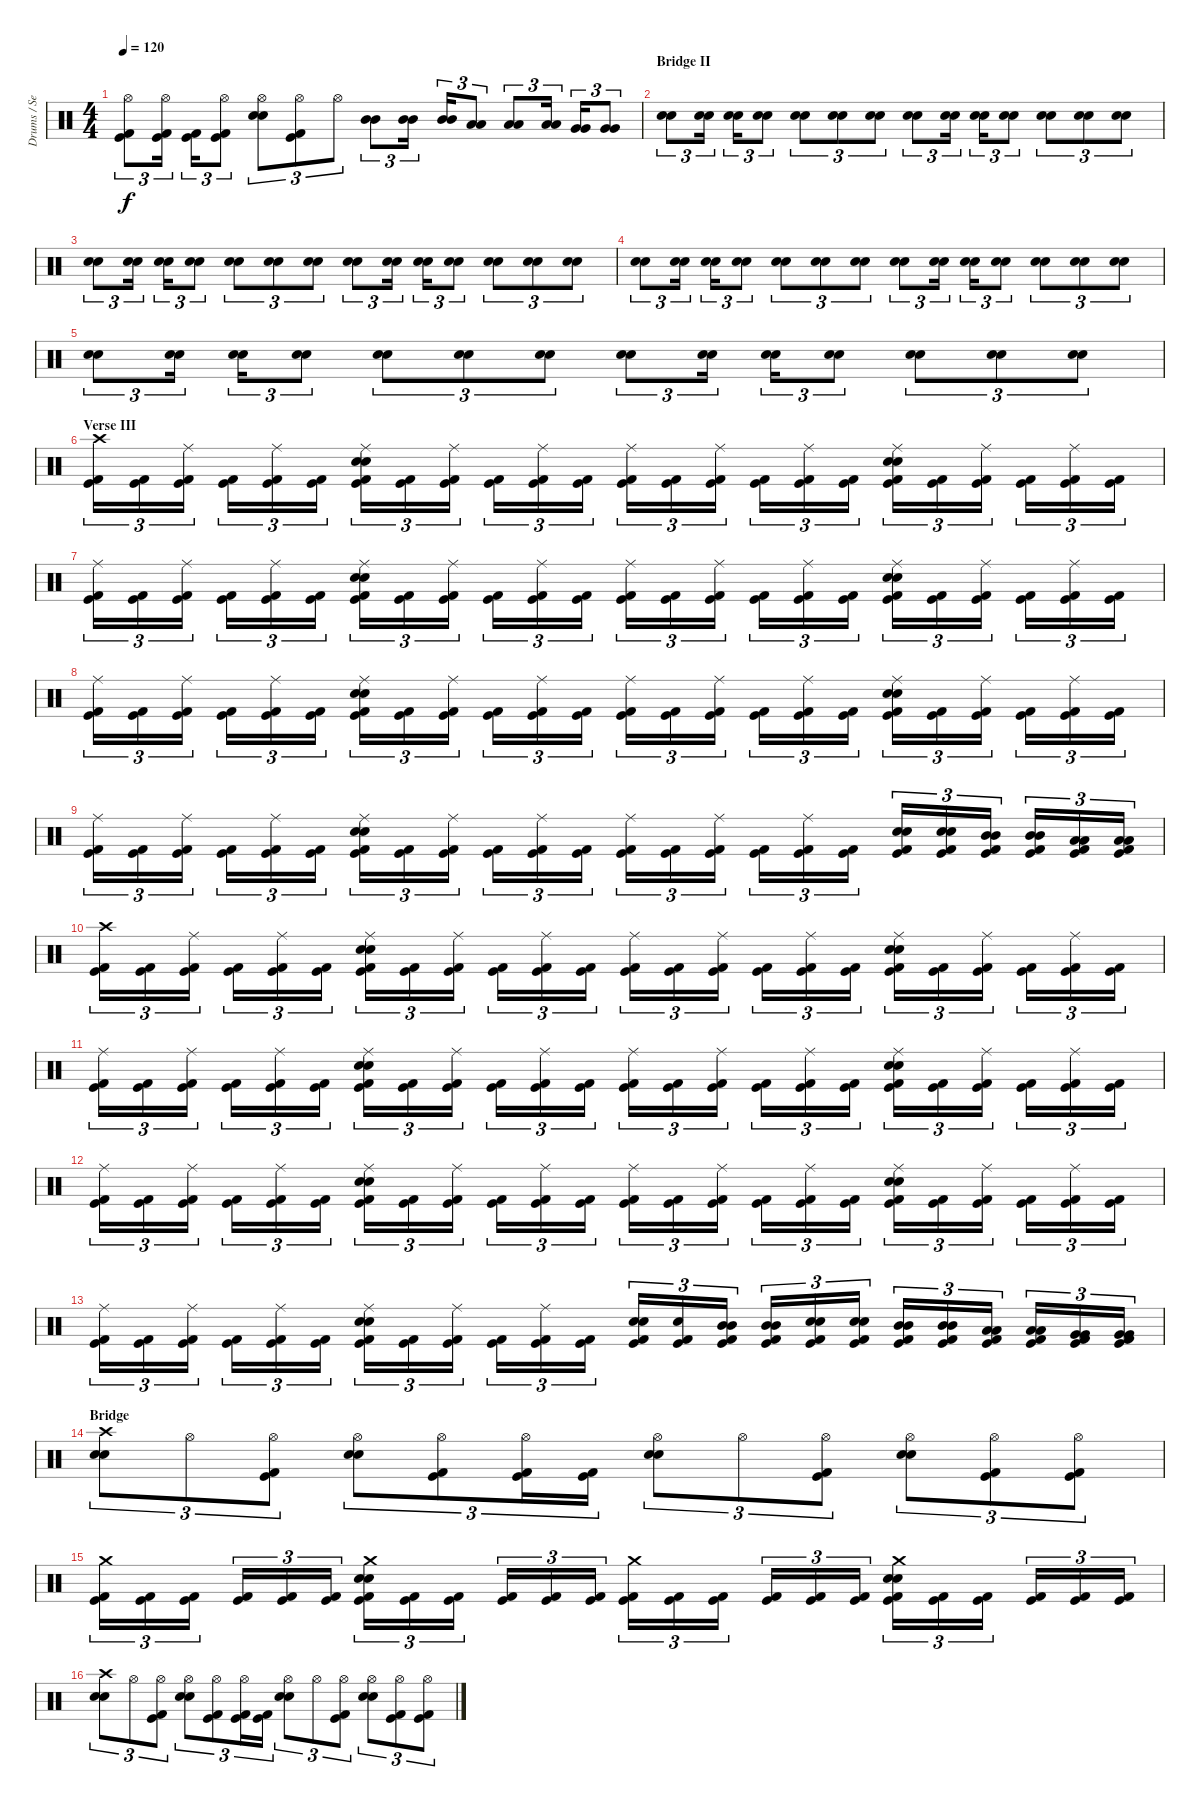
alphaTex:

\track ("Drums / Sean" "Drums / Se") {instrument percussion}
\staff {score}
\articulation defaults
\ts (4 4)
\tempo 120
\clef neutral
\ks c
("Hi-Hat (open)" "Kick (hit)" "Kick (hit) 2").8{tu (3 2) dy f} ("Hi-Hat (open)" "Kick (hit)" "Kick (hit) 2").16{tu (3 2)} ("Kick (hit)" "Kick (hit) 2").16{tu (3 2)} ("Hi-Hat (open)" "Kick (hit)" "Kick (hit) 2").8{tu (3 2)} ("Hi-Hat (open)" "Electric Snare (hit)" "Snare (hit) 2").8{tu (3 2)} ("Hi-Hat (open)" "Kick (hit)" "Kick (hit) 2").8{tu (3 2)} "Hi-Hat (open)".8{tu (3 2)} ("Mid Tom (hit)" "Mid Tom (hit)").8{tu (3 2)} ("Mid Tom (hit)" "Mid Tom (hit)").16{tu (3 2)} ("Mid Tom (hit)" "Mid Tom (hit)").16{tu (3 2)} ("Low Tom (hit)" "Low Tom (hit)").8{tu (3 2)} ("Low Tom (hit)" "Low Tom (hit)").8{tu (3 2)} ("Low Tom (hit)" "Low Tom (hit)").16{tu (3 2)} ("Very Low Tom (hit)" "Very Low Tom (hit)").16{tu (3 2)} ("Very Low Tom (hit)" "Very Low Tom (hit)").8{tu (3 2)} |
\section ("" "Bridge II")
("Electric Snare (hit)" "Snare (hit) 2").8{tu (3 2)} ("Electric Snare (hit)" "Snare (hit) 2").16{tu (3 2)} ("Electric Snare (hit)" "Snare (hit) 2").16{tu (3 2)} ("Electric Snare (hit)" "Snare (hit) 2").8{tu (3 2)} ("Electric Snare (hit)" "Snare (hit) 2").8{tu (3 2)} ("Electric Snare (hit)" "Snare (hit) 2").8{tu (3 2)} ("Electric Snare (hit)" "Snare (hit) 2").8{tu (3 2)} ("Electric Snare (hit)" "Snare (hit) 2").8{tu (3 2)} ("Electric Snare (hit)" "Snare (hit) 2").16{tu (3 2)} ("Electric Snare (hit)" "Snare (hit) 2").16{tu (3 2)} ("Electric Snare (hit)" "Snare (hit) 2").8{tu (3 2)} ("Electric Snare (hit)" "Snare (hit) 2").8{tu (3 2)} ("Electric Snare (hit)" "Snare (hit) 2").8{tu (3 2)} ("Electric Snare (hit)" "Snare (hit) 2").8{tu (3 2)} |
("Electric Snare (hit)" "Snare (hit) 2").8{tu (3 2)} ("Electric Snare (hit)" "Snare (hit) 2").16{tu (3 2)} ("Electric Snare (hit)" "Snare (hit) 2").16{tu (3 2)} ("Electric Snare (hit)" "Snare (hit) 2").8{tu (3 2)} ("Electric Snare (hit)" "Snare (hit) 2").8{tu (3 2)} ("Electric Snare (hit)" "Snare (hit) 2").8{tu (3 2)} ("Electric Snare (hit)" "Snare (hit) 2").8{tu (3 2)} ("Electric Snare (hit)" "Snare (hit) 2").8{tu (3 2)} ("Electric Snare (hit)" "Snare (hit) 2").16{tu (3 2)} ("Electric Snare (hit)" "Snare (hit) 2").16{tu (3 2)} ("Electric Snare (hit)" "Snare (hit) 2").8{tu (3 2)} ("Electric Snare (hit)" "Snare (hit) 2").8{tu (3 2)} ("Electric Snare (hit)" "Snare (hit) 2").8{tu (3 2)} ("Electric Snare (hit)" "Snare (hit) 2").8{tu (3 2)} |
("Electric Snare (hit)" "Snare (hit) 2").8{tu (3 2)} ("Electric Snare (hit)" "Snare (hit) 2").16{tu (3 2)} ("Electric Snare (hit)" "Snare (hit) 2").16{tu (3 2)} ("Electric Snare (hit)" "Snare (hit) 2").8{tu (3 2)} ("Electric Snare (hit)" "Snare (hit) 2").8{tu (3 2)} ("Electric Snare (hit)" "Snare (hit) 2").8{tu (3 2)} ("Electric Snare (hit)" "Snare (hit) 2").8{tu (3 2)} ("Electric Snare (hit)" "Snare (hit) 2").8{tu (3 2)} ("Electric Snare (hit)" "Snare (hit) 2").16{tu (3 2)} ("Electric Snare (hit)" "Snare (hit) 2").16{tu (3 2)} ("Electric Snare (hit)" "Snare (hit) 2").8{tu (3 2)} ("Electric Snare (hit)" "Snare (hit) 2").8{tu (3 2)} ("Electric Snare (hit)" "Snare (hit) 2").8{tu (3 2)} ("Electric Snare (hit)" "Snare (hit) 2").8{tu (3 2)} |
("Electric Snare (hit)" "Snare (hit) 2").8{tu (3 2)} ("Electric Snare (hit)" "Snare (hit) 2").16{tu (3 2)} ("Electric Snare (hit)" "Snare (hit) 2").16{tu (3 2)} ("Electric Snare (hit)" "Snare (hit) 2").8{tu (3 2)} ("Electric Snare (hit)" "Snare (hit) 2").8{tu (3 2)} ("Electric Snare (hit)" "Snare (hit) 2").8{tu (3 2)} ("Electric Snare (hit)" "Snare (hit) 2").8{tu (3 2)} ("Electric Snare (hit)" "Snare (hit) 2").8{tu (3 2)} ("Electric Snare (hit)" "Snare (hit) 2").16{tu (3 2)} ("Electric Snare (hit)" "Snare (hit) 2").16{tu (3 2)} ("Electric Snare (hit)" "Snare (hit) 2").8{tu (3 2)} ("Electric Snare (hit)" "Snare (hit) 2").8{tu (3 2)} ("Electric Snare (hit)" "Snare (hit) 2").8{tu (3 2)} ("Electric Snare (hit)" "Snare (hit) 2").8{tu (3 2)} |
\section ("" "Verse III")
("Crash high (hit)" "Kick (hit)" "Kick (hit) 2").16{tu (3 2)} ("Kick (hit)" "Kick (hit) 2").16{tu (3 2)} ("Ride (middle)" "Kick (hit)" "Kick (hit) 2").16{tu (3 2)} ("Kick (hit)" "Kick (hit) 2").16{tu (3 2)} ("Ride (middle)" "Kick (hit)" "Kick (hit) 2").16{tu (3 2)} ("Kick (hit)" "Kick (hit) 2").16{tu (3 2)} ("Ride (middle)" "Electric Snare (hit)" "Snare (hit) 2" "Kick (hit)" "Kick (hit) 2").16{tu (3 2)} ("Kick (hit)" "Kick (hit) 2").16{tu (3 2)} ("Ride (middle)" "Kick (hit)" "Kick (hit) 2").16{tu (3 2)} ("Kick (hit)" "Kick (hit) 2").16{tu (3 2)} ("Ride (middle)" "Kick (hit)" "Kick (hit) 2").16{tu (3 2)} ("Kick (hit)" "Kick (hit) 2").16{tu (3 2)} ("Ride (middle)" "Kick (hit)" "Kick (hit) 2").16{tu (3 2)} ("Kick (hit)" "Kick (hit) 2").16{tu (3 2)} ("Ride (middle)" "Kick (hit)" "Kick (hit) 2").16{tu (3 2)} ("Kick (hit)" "Kick (hit) 2").16{tu (3 2)} ("Ride (middle)" "Kick (hit)" "Kick (hit) 2").16{tu (3 2)} ("Kick (hit)" "Kick (hit) 2").16{tu (3 2)} ("Ride (middle)" "Electric Snare (hit)" "Snare (hit) 2" "Kick (hit)" "Kick (hit) 2").16{tu (3 2)} ("Kick (hit)" "Kick (hit) 2").16{tu (3 2)} ("Ride (middle)" "Kick (hit)" "Kick (hit) 2").16{tu (3 2)} ("Kick (hit)" "Kick (hit) 2").16{tu (3 2)} ("Ride (middle)" "Kick (hit)" "Kick (hit) 2").16{tu (3 2)} ("Kick (hit)" "Kick (hit) 2").16{tu (3 2)} |
("Ride (middle)" "Kick (hit)" "Kick (hit) 2").16{tu (3 2)} ("Kick (hit)" "Kick (hit) 2").16{tu (3 2)} ("Ride (middle)" "Kick (hit)" "Kick (hit) 2").16{tu (3 2)} ("Kick (hit)" "Kick (hit) 2").16{tu (3 2)} ("Ride (middle)" "Kick (hit)" "Kick (hit) 2").16{tu (3 2)} ("Kick (hit)" "Kick (hit) 2").16{tu (3 2)} ("Ride (middle)" "Electric Snare (hit)" "Snare (hit) 2" "Kick (hit)" "Kick (hit) 2").16{tu (3 2)} ("Kick (hit)" "Kick (hit) 2").16{tu (3 2)} ("Ride (middle)" "Kick (hit)" "Kick (hit) 2").16{tu (3 2)} ("Kick (hit)" "Kick (hit) 2").16{tu (3 2)} ("Ride (middle)" "Kick (hit)" "Kick (hit) 2").16{tu (3 2)} ("Kick (hit)" "Kick (hit) 2").16{tu (3 2)} ("Ride (middle)" "Kick (hit)" "Kick (hit) 2").16{tu (3 2)} ("Kick (hit)" "Kick (hit) 2").16{tu (3 2)} ("Ride (middle)" "Kick (hit)" "Kick (hit) 2").16{tu (3 2)} ("Kick (hit)" "Kick (hit) 2").16{tu (3 2)} ("Ride (middle)" "Kick (hit)" "Kick (hit) 2").16{tu (3 2)} ("Kick (hit)" "Kick (hit) 2").16{tu (3 2)} ("Ride (middle)" "Electric Snare (hit)" "Snare (hit) 2" "Kick (hit)" "Kick (hit) 2").16{tu (3 2)} ("Kick (hit)" "Kick (hit) 2").16{tu (3 2)} ("Ride (middle)" "Kick (hit)" "Kick (hit) 2").16{tu (3 2)} ("Kick (hit)" "Kick (hit) 2").16{tu (3 2)} ("Ride (middle)" "Kick (hit)" "Kick (hit) 2").16{tu (3 2)} ("Kick (hit)" "Kick (hit) 2").16{tu (3 2)} |
("Ride (middle)" "Kick (hit)" "Kick (hit) 2").16{tu (3 2)} ("Kick (hit)" "Kick (hit) 2").16{tu (3 2)} ("Ride (middle)" "Kick (hit)" "Kick (hit) 2").16{tu (3 2)} ("Kick (hit)" "Kick (hit) 2").16{tu (3 2)} ("Ride (middle)" "Kick (hit)" "Kick (hit) 2").16{tu (3 2)} ("Kick (hit)" "Kick (hit) 2").16{tu (3 2)} ("Ride (middle)" "Electric Snare (hit)" "Snare (hit) 2" "Kick (hit)" "Kick (hit) 2").16{tu (3 2)} ("Kick (hit)" "Kick (hit) 2").16{tu (3 2)} ("Ride (middle)" "Kick (hit)" "Kick (hit) 2").16{tu (3 2)} ("Kick (hit)" "Kick (hit) 2").16{tu (3 2)} ("Ride (middle)" "Kick (hit)" "Kick (hit) 2").16{tu (3 2)} ("Kick (hit)" "Kick (hit) 2").16{tu (3 2)} ("Ride (middle)" "Kick (hit)" "Kick (hit) 2").16{tu (3 2)} ("Kick (hit)" "Kick (hit) 2").16{tu (3 2)} ("Ride (middle)" "Kick (hit)" "Kick (hit) 2").16{tu (3 2)} ("Kick (hit)" "Kick (hit) 2").16{tu (3 2)} ("Ride (middle)" "Kick (hit)" "Kick (hit) 2").16{tu (3 2)} ("Kick (hit)" "Kick (hit) 2").16{tu (3 2)} ("Ride (middle)" "Electric Snare (hit)" "Snare (hit) 2" "Kick (hit)" "Kick (hit) 2").16{tu (3 2)} ("Kick (hit)" "Kick (hit) 2").16{tu (3 2)} ("Ride (middle)" "Kick (hit)" "Kick (hit) 2").16{tu (3 2)} ("Kick (hit)" "Kick (hit) 2").16{tu (3 2)} ("Ride (middle)" "Kick (hit)" "Kick (hit) 2").16{tu (3 2)} ("Kick (hit)" "Kick (hit) 2").16{tu (3 2)} |
("Ride (middle)" "Kick (hit)" "Kick (hit) 2").16{tu (3 2)} ("Kick (hit)" "Kick (hit) 2").16{tu (3 2)} ("Ride (middle)" "Kick (hit)" "Kick (hit) 2").16{tu (3 2)} ("Kick (hit)" "Kick (hit) 2").16{tu (3 2)} ("Ride (middle)" "Kick (hit)" "Kick (hit) 2").16{tu (3 2)} ("Kick (hit)" "Kick (hit) 2").16{tu (3 2)} ("Ride (middle)" "Electric Snare (hit)" "Snare (hit) 2" "Kick (hit)" "Kick (hit) 2").16{tu (3 2)} ("Kick (hit)" "Kick (hit) 2").16{tu (3 2)} ("Ride (middle)" "Kick (hit)" "Kick (hit) 2").16{tu (3 2)} ("Kick (hit)" "Kick (hit) 2").16{tu (3 2)} ("Ride (middle)" "Kick (hit)" "Kick (hit) 2").16{tu (3 2)} ("Kick (hit)" "Kick (hit) 2").16{tu (3 2)} ("Ride (middle)" "Kick (hit)" "Kick (hit) 2").16{tu (3 2)} ("Kick (hit)" "Kick (hit) 2").16{tu (3 2)} ("Ride (middle)" "Kick (hit)" "Kick (hit) 2").16{tu (3 2)} ("Kick (hit)" "Kick (hit) 2").16{tu (3 2)} ("Ride (middle)" "Kick (hit)" "Kick (hit) 2").16{tu (3 2)} ("Kick (hit)" "Kick (hit) 2").16{tu (3 2)} ("Electric Snare (hit)" "Snare (hit) 2" "Kick (hit)" "Kick (hit) 2").16{tu (3 2)} ("Electric Snare (hit)" "Snare (hit) 2" "Kick (hit)" "Kick (hit) 2").16{tu (3 2)} ("Mid Tom (hit)" "Mid Tom (hit)" "Kick (hit)" "Kick (hit) 2").16{tu (3 2)} ("Mid Tom (hit)" "Mid Tom (hit)" "Kick (hit)" "Kick (hit) 2").16{tu (3 2)} ("Low Tom (hit)" "Low Tom (hit)" "Kick (hit)" "Kick (hit) 2").16{tu (3 2)} ("Low Tom (hit)" "Low Tom (hit)" "Kick (hit)" "Kick (hit) 2").16{tu (3 2)} |
("Crash high (hit)" "Kick (hit)" "Kick (hit) 2").16{tu (3 2)} ("Kick (hit)" "Kick (hit) 2").16{tu (3 2)} ("Ride (middle)" "Kick (hit)" "Kick (hit) 2").16{tu (3 2)} ("Kick (hit)" "Kick (hit) 2").16{tu (3 2)} ("Ride (middle)" "Kick (hit)" "Kick (hit) 2").16{tu (3 2)} ("Kick (hit)" "Kick (hit) 2").16{tu (3 2)} ("Ride (middle)" "Electric Snare (hit)" "Snare (hit) 2" "Kick (hit)" "Kick (hit) 2").16{tu (3 2)} ("Kick (hit)" "Kick (hit) 2").16{tu (3 2)} ("Ride (middle)" "Kick (hit)" "Kick (hit) 2").16{tu (3 2)} ("Kick (hit)" "Kick (hit) 2").16{tu (3 2)} ("Ride (middle)" "Kick (hit)" "Kick (hit) 2").16{tu (3 2)} ("Kick (hit)" "Kick (hit) 2").16{tu (3 2)} ("Ride (middle)" "Kick (hit)" "Kick (hit) 2").16{tu (3 2)} ("Kick (hit)" "Kick (hit) 2").16{tu (3 2)} ("Ride (middle)" "Kick (hit)" "Kick (hit) 2").16{tu (3 2)} ("Kick (hit)" "Kick (hit) 2").16{tu (3 2)} ("Ride (middle)" "Kick (hit)" "Kick (hit) 2").16{tu (3 2)} ("Kick (hit)" "Kick (hit) 2").16{tu (3 2)} ("Ride (middle)" "Electric Snare (hit)" "Snare (hit) 2" "Kick (hit)" "Kick (hit) 2").16{tu (3 2)} ("Kick (hit)" "Kick (hit) 2").16{tu (3 2)} ("Ride (middle)" "Kick (hit)" "Kick (hit) 2").16{tu (3 2)} ("Kick (hit)" "Kick (hit) 2").16{tu (3 2)} ("Ride (middle)" "Kick (hit)" "Kick (hit) 2").16{tu (3 2)} ("Kick (hit)" "Kick (hit) 2").16{tu (3 2)} |
("Ride (middle)" "Kick (hit)" "Kick (hit) 2").16{tu (3 2)} ("Kick (hit)" "Kick (hit) 2").16{tu (3 2)} ("Ride (middle)" "Kick (hit)" "Kick (hit) 2").16{tu (3 2)} ("Kick (hit)" "Kick (hit) 2").16{tu (3 2)} ("Ride (middle)" "Kick (hit)" "Kick (hit) 2").16{tu (3 2)} ("Kick (hit)" "Kick (hit) 2").16{tu (3 2)} ("Ride (middle)" "Electric Snare (hit)" "Snare (hit) 2" "Kick (hit)" "Kick (hit) 2").16{tu (3 2)} ("Kick (hit)" "Kick (hit) 2").16{tu (3 2)} ("Ride (middle)" "Kick (hit)" "Kick (hit) 2").16{tu (3 2)} ("Kick (hit)" "Kick (hit) 2").16{tu (3 2)} ("Ride (middle)" "Kick (hit)" "Kick (hit) 2").16{tu (3 2)} ("Kick (hit)" "Kick (hit) 2").16{tu (3 2)} ("Ride (middle)" "Kick (hit)" "Kick (hit) 2").16{tu (3 2)} ("Kick (hit)" "Kick (hit) 2").16{tu (3 2)} ("Ride (middle)" "Kick (hit)" "Kick (hit) 2").16{tu (3 2)} ("Kick (hit)" "Kick (hit) 2").16{tu (3 2)} ("Ride (middle)" "Kick (hit)" "Kick (hit) 2").16{tu (3 2)} ("Kick (hit)" "Kick (hit) 2").16{tu (3 2)} ("Ride (middle)" "Electric Snare (hit)" "Snare (hit) 2" "Kick (hit)" "Kick (hit) 2").16{tu (3 2)} ("Kick (hit)" "Kick (hit) 2").16{tu (3 2)} ("Ride (middle)" "Kick (hit)" "Kick (hit) 2").16{tu (3 2)} ("Kick (hit)" "Kick (hit) 2").16{tu (3 2)} ("Ride (middle)" "Kick (hit)" "Kick (hit) 2").16{tu (3 2)} ("Kick (hit)" "Kick (hit) 2").16{tu (3 2)} |
("Ride (middle)" "Kick (hit)" "Kick (hit) 2").16{tu (3 2)} ("Kick (hit)" "Kick (hit) 2").16{tu (3 2)} ("Ride (middle)" "Kick (hit)" "Kick (hit) 2").16{tu (3 2)} ("Kick (hit)" "Kick (hit) 2").16{tu (3 2)} ("Ride (middle)" "Kick (hit)" "Kick (hit) 2").16{tu (3 2)} ("Kick (hit)" "Kick (hit) 2").16{tu (3 2)} ("Ride (middle)" "Electric Snare (hit)" "Snare (hit) 2" "Kick (hit)" "Kick (hit) 2").16{tu (3 2)} ("Kick (hit)" "Kick (hit) 2").16{tu (3 2)} ("Ride (middle)" "Kick (hit)" "Kick (hit) 2").16{tu (3 2)} ("Kick (hit)" "Kick (hit) 2").16{tu (3 2)} ("Ride (middle)" "Kick (hit)" "Kick (hit) 2").16{tu (3 2)} ("Kick (hit)" "Kick (hit) 2").16{tu (3 2)} ("Ride (middle)" "Kick (hit)" "Kick (hit) 2").16{tu (3 2)} ("Kick (hit)" "Kick (hit) 2").16{tu (3 2)} ("Ride (middle)" "Kick (hit)" "Kick (hit) 2").16{tu (3 2)} ("Kick (hit)" "Kick (hit) 2").16{tu (3 2)} ("Ride (middle)" "Kick (hit)" "Kick (hit) 2").16{tu (3 2)} ("Kick (hit)" "Kick (hit) 2").16{tu (3 2)} ("Ride (middle)" "Electric Snare (hit)" "Snare (hit) 2" "Kick (hit)" "Kick (hit) 2").16{tu (3 2)} ("Kick (hit)" "Kick (hit) 2").16{tu (3 2)} ("Ride (middle)" "Kick (hit)" "Kick (hit) 2").16{tu (3 2)} ("Kick (hit)" "Kick (hit) 2").16{tu (3 2)} ("Ride (middle)" "Kick (hit)" "Kick (hit) 2").16{tu (3 2)} ("Kick (hit)" "Kick (hit) 2").16{tu (3 2)} |
("Ride (middle)" "Kick (hit)" "Kick (hit) 2").16{tu (3 2)} ("Kick (hit)" "Kick (hit) 2").16{tu (3 2)} ("Ride (middle)" "Kick (hit)" "Kick (hit) 2").16{tu (3 2)} ("Kick (hit)" "Kick (hit) 2").16{tu (3 2)} ("Ride (middle)" "Kick (hit)" "Kick (hit) 2").16{tu (3 2)} ("Kick (hit)" "Kick (hit) 2").16{tu (3 2)} ("Ride (middle)" "Electric Snare (hit)" "Snare (hit) 2" "Kick (hit)" "Kick (hit) 2").16{tu (3 2)} ("Kick (hit)" "Kick (hit) 2").16{tu (3 2)} ("Ride (middle)" "Kick (hit)" "Kick (hit) 2").16{tu (3 2)} ("Kick (hit)" "Kick (hit) 2").16{tu (3 2)} ("Ride (middle)" "Kick (hit)" "Kick (hit) 2").16{tu (3 2)} ("Kick (hit)" "Kick (hit) 2").16{tu (3 2)} ("Electric Snare (hit)" "Snare (hit) 2" "Kick (hit)" "Kick (hit) 2").16{tu (3 2)} ("Electric Snare (hit)" "Kick (hit)" "Kick (hit) 2").16{tu (3 2)} ("Mid Tom (hit)" "Mid Tom (hit)" "Kick (hit)" "Kick (hit) 2").16{tu (3 2)} ("Mid Tom (hit)" "Mid Tom (hit)" "Kick (hit)" "Kick (hit) 2").16{tu (3 2)} ("Electric Snare (hit)" "Snare (hit) 2" "Kick (hit)" "Kick (hit) 2").16{tu (3 2)} ("Electric Snare (hit)" "Snare (hit) 2" "Kick (hit)" "Kick (hit) 2").16{tu (3 2)} ("Mid Tom (hit)" "Mid Tom (hit)" "Kick (hit)" "Kick (hit) 2").16{tu (3 2)} ("Mid Tom (hit)" "Mid Tom (hit)" "Kick (hit)" "Kick (hit) 2").16{tu (3 2)} ("Low Tom (hit)" "Low Tom (hit)" "Kick (hit)" "Kick (hit) 2").16{tu (3 2)} ("Low Tom (hit)" "Low Tom (hit)" "Kick (hit)" "Kick (hit) 2").16{tu (3 2)} ("Very Low Tom (hit)" "Very Low Tom (hit)" "Kick (hit)" "Kick (hit) 2").16{tu (3 2)} ("Very Low Tom (hit)" "Very Low Tom (hit)" "Kick (hit)" "Kick (hit) 2").16{tu (3 2)} |
\section ("" "Bridge")
("Crash high (hit)" "Electric Snare (hit)" "Snare (hit) 2").8{tu (3 2)} "Hi-Hat (open)".8{tu (3 2)} ("Hi-Hat (open)" "Kick (hit)" "Kick (hit) 2").8{tu (3 2)} ("Hi-Hat (open)" "Electric Snare (hit)" "Snare (hit) 2").8{tu (3 2)} ("Hi-Hat (open)" "Kick (hit)" "Kick (hit) 2").8{tu (3 2)} ("Hi-Hat (open)" "Kick (hit)" "Kick (hit) 2").16{tu (3 2)} ("Kick (hit)" "Kick (hit) 2").16{tu (3 2)} ("Hi-Hat (open)" "Electric Snare (hit)" "Snare (hit) 2").8{tu (3 2)} "Hi-Hat (open)".8{tu (3 2)} ("Hi-Hat (open)" "Kick (hit)" "Kick (hit) 2").8{tu (3 2)} ("Hi-Hat (open)" "Electric Snare (hit)" "Snare (hit) 2").8{tu (3 2)} ("Hi-Hat (open)" "Kick (hit)" "Kick (hit) 2").8{tu (3 2)} ("Hi-Hat (open)" "Kick (hit)" "Kick (hit) 2").8{tu (3 2)} |
("Crash medium (hit)" "Kick (hit)" "Kick (hit) 2").16{tu (3 2)} ("Kick (hit)" "Kick (hit) 2").16{tu (3 2)} ("Kick (hit)" "Kick (hit) 2").16{tu (3 2)} ("Kick (hit)" "Kick (hit) 2").16{tu (3 2)} ("Kick (hit)" "Kick (hit) 2").16{tu (3 2)} ("Kick (hit)" "Kick (hit) 2").16{tu (3 2)} ("Crash medium (hit)" "Electric Snare (hit)" "Snare (hit) 2" "Kick (hit)" "Kick (hit) 2").16{tu (3 2)} ("Kick (hit)" "Kick (hit) 2").16{tu (3 2)} ("Kick (hit)" "Kick (hit) 2").16{tu (3 2)} ("Kick (hit)" "Kick (hit) 2").16{tu (3 2)} ("Kick (hit)" "Kick (hit) 2").16{tu (3 2)} ("Kick (hit)" "Kick (hit) 2").16{tu (3 2)} ("Crash medium (hit)" "Kick (hit)" "Kick (hit) 2").16{tu (3 2)} ("Kick (hit)" "Kick (hit) 2").16{tu (3 2)} ("Kick (hit)" "Kick (hit) 2").16{tu (3 2)} ("Kick (hit)" "Kick (hit) 2").16{tu (3 2)} ("Kick (hit)" "Kick (hit) 2").16{tu (3 2)} ("Kick (hit)" "Kick (hit) 2").16{tu (3 2)} ("Crash medium (hit)" "Electric Snare (hit)" "Snare (hit) 2" "Kick (hit)" "Kick (hit) 2").16{tu (3 2)} ("Kick (hit)" "Kick (hit) 2").16{tu (3 2)} ("Kick (hit)" "Kick (hit) 2").16{tu (3 2)} ("Kick (hit)" "Kick (hit) 2").16{tu (3 2)} ("Kick (hit)" "Kick (hit) 2").16{tu (3 2)} ("Kick (hit)" "Kick (hit) 2").16{tu (3 2)} |
("Crash high (hit)" "Electric Snare (hit)" "Snare (hit) 2").8{tu (3 2)} "Hi-Hat (open)".8{tu (3 2)} ("Hi-Hat (open)" "Kick (hit)" "Kick (hit) 2").8{tu (3 2)} ("Hi-Hat (open)" "Electric Snare (hit)" "Snare (hit) 2").8{tu (3 2)} ("Hi-Hat (open)" "Kick (hit)" "Kick (hit) 2").8{tu (3 2)} ("Hi-Hat (open)" "Kick (hit)" "Kick (hit) 2").16{tu (3 2)} ("Kick (hit)" "Kick (hit) 2").16{tu (3 2)} ("Hi-Hat (open)" "Electric Snare (hit)" "Snare (hit) 2").8{tu (3 2)} "Hi-Hat (open)".8{tu (3 2)} ("Hi-Hat (open)" "Kick (hit)" "Kick (hit) 2").8{tu (3 2)} ("Hi-Hat (open)" "Electric Snare (hit)" "Snare (hit) 2").8{tu (3 2)} ("Hi-Hat (open)" "Kick (hit)" "Kick (hit) 2").8{tu (3 2)} ("Hi-Hat (open)" "Kick (hit)" "Kick (hit) 2").8{tu (3 2)}
